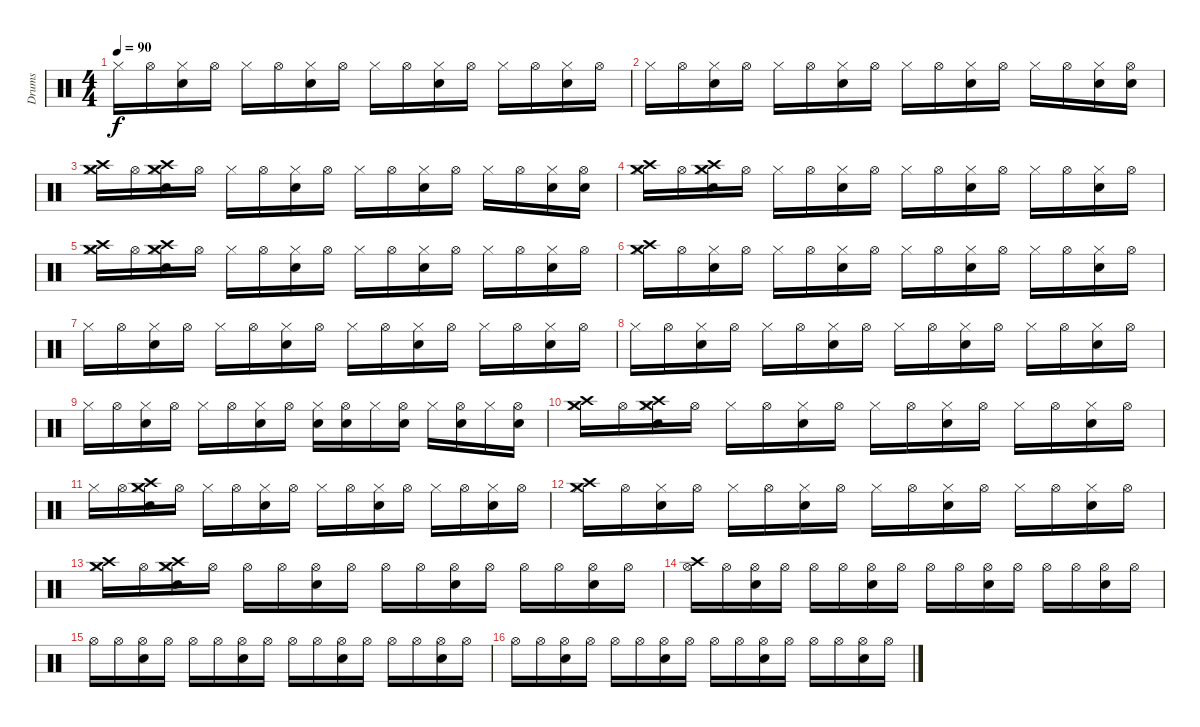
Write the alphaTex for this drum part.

\track ("Drums" "Drums") {instrument percussion}
\staff {score}
\articulation defaults
\ts (4 4)
\tempo 90
\clef neutral
\ks c "Hi-Hat (closed)".16{dy f} "Hi-Hat (open)".16
("Snare (hit) 2" "Hi-Hat (closed)").16 "Hi-Hat (open)".16 "Hi-Hat (closed)".16 "Hi-Hat (open)".16 ("Snare (hit) 2" "Hi-Hat (closed)").16 "Hi-Hat (open)".16 "Hi-Hat (closed)".16 "Hi-Hat (open)".16 ("Snare (hit) 2" "Hi-Hat (closed)").16 "Hi-Hat (open)".16 "Hi-Hat (closed)".16 "Hi-Hat (open)".16 ("Snare (hit) 2" "Hi-Hat (closed)").16 "Hi-Hat (open)".16 |
"Hi-Hat (closed)".16 "Hi-Hat (open)".16 ("Snare (hit) 2" "Hi-Hat (closed)").16 "Hi-Hat (open)".16 "Hi-Hat (closed)".16 "Hi-Hat (open)".16 ("Snare (hit) 2" "Hi-Hat (closed)").16 "Hi-Hat (open)".16 "Hi-Hat (closed)".16 "Hi-Hat (open)".16 ("Snare (hit) 2" "Hi-Hat (closed)").16 "Hi-Hat (open)".16 "Hi-Hat (closed)".16 "Hi-Hat (open)".16 ("Snare (hit) 2" "Hi-Hat (closed)").16 ("Snare (hit) 2" "Hi-Hat (open)").16 |
("Crash high (hit)" "Hi-Hat (closed)" "Crash medium (hit)").16 "Hi-Hat (open)".16 ("Snare (hit) 2" "Hi-Hat (closed)" "Crash high (hit)" "Crash medium (hit)").16 "Hi-Hat (open)".16 "Hi-Hat (closed)".16 "Hi-Hat (open)".16 ("Snare (hit) 2" "Hi-Hat (closed)").16 "Hi-Hat (open)".16 "Hi-Hat (closed)".16 "Hi-Hat (open)".16 ("Snare (hit) 2" "Hi-Hat (closed)").16 "Hi-Hat (open)".16 "Hi-Hat (closed)".16 "Hi-Hat (open)".16 ("Snare (hit) 2" "Hi-Hat (closed)").16 ("Snare (hit) 2" "Hi-Hat (open)").16 |
("Crash high (hit)" "Hi-Hat (closed)" "Crash medium (hit)").16 "Hi-Hat (open)".16 ("Snare (hit) 2" "Hi-Hat (closed)" "Crash high (hit)" "Crash medium (hit)").16 "Hi-Hat (open)".16 "Hi-Hat (closed)".16 "Hi-Hat (open)".16 ("Snare (hit) 2" "Hi-Hat (closed)").16 "Hi-Hat (open)".16 "Hi-Hat (closed)".16 "Hi-Hat (open)".16 ("Snare (hit) 2" "Hi-Hat (closed)").16 "Hi-Hat (open)".16 "Hi-Hat (closed)".16 "Hi-Hat (open)".16 ("Snare (hit) 2" "Hi-Hat (closed)").16 "Hi-Hat (open)".16 |
("Crash high (hit)" "Hi-Hat (closed)" "Crash medium (hit)").16 "Hi-Hat (open)".16 ("Snare (hit) 2" "Hi-Hat (closed)" "Crash high (hit)" "Crash medium (hit)").16 "Hi-Hat (open)".16 "Hi-Hat (closed)".16 "Hi-Hat (open)".16 ("Snare (hit) 2" "Hi-Hat (closed)").16 "Hi-Hat (open)".16 "Hi-Hat (closed)".16 "Hi-Hat (open)".16 ("Snare (hit) 2" "Hi-Hat (closed)").16 "Hi-Hat (open)".16 "Hi-Hat (closed)".16 "Hi-Hat (open)".16 ("Snare (hit) 2" "Hi-Hat (closed)").16 "Hi-Hat (open)".16 |
("Crash high (hit)" "Hi-Hat (closed)" "Crash medium (hit)").16 "Hi-Hat (open)".16 ("Snare (hit) 2" "Hi-Hat (closed)").16 "Hi-Hat (open)".16 "Hi-Hat (closed)".16 "Hi-Hat (open)".16 ("Snare (hit) 2" "Hi-Hat (closed)").16 "Hi-Hat (open)".16 "Hi-Hat (closed)".16 "Hi-Hat (open)".16 ("Snare (hit) 2" "Hi-Hat (closed)").16 "Hi-Hat (open)".16 "Hi-Hat (closed)".16 "Hi-Hat (open)".16 ("Snare (hit) 2" "Hi-Hat (closed)").16 "Hi-Hat (open)".16 |
"Hi-Hat (closed)".16 "Hi-Hat (open)".16 ("Snare (hit) 2" "Hi-Hat (closed)").16 "Hi-Hat (open)".16 "Hi-Hat (closed)".16 "Hi-Hat (open)".16 ("Snare (hit) 2" "Hi-Hat (closed)").16 "Hi-Hat (open)".16 "Hi-Hat (closed)".16 "Hi-Hat (open)".16 ("Snare (hit) 2" "Hi-Hat (closed)").16 "Hi-Hat (open)".16 "Hi-Hat (closed)".16 "Hi-Hat (open)".16 ("Snare (hit) 2" "Hi-Hat (closed)").16 "Hi-Hat (open)".16 |
"Hi-Hat (closed)".16 "Hi-Hat (open)".16 ("Snare (hit) 2" "Hi-Hat (closed)").16 "Hi-Hat (open)".16 "Hi-Hat (closed)".16 "Hi-Hat (open)".16 ("Snare (hit) 2" "Hi-Hat (closed)").16 "Hi-Hat (open)".16 "Hi-Hat (closed)".16 "Hi-Hat (open)".16 ("Snare (hit) 2" "Hi-Hat (closed)").16 "Hi-Hat (open)".16 "Hi-Hat (closed)".16 "Hi-Hat (open)".16 ("Snare (hit) 2" "Hi-Hat (closed)").16 "Hi-Hat (open)".16 |
"Hi-Hat (closed)".16 "Hi-Hat (open)".16 ("Snare (hit) 2" "Hi-Hat (closed)").16 "Hi-Hat (open)".16 "Hi-Hat (closed)".16 "Hi-Hat (open)".16 ("Snare (hit) 2" "Hi-Hat (closed)").16 "Hi-Hat (open)".16 ("Snare (hit) 2" "Hi-Hat (closed)").16 ("Snare (hit) 2" "Hi-Hat (open)").16 "Hi-Hat (closed)".16 ("Snare (hit) 2" "Hi-Hat (open)").16 "Hi-Hat (closed)".16 ("Snare (hit) 2" "Hi-Hat (open)").16 "Hi-Hat (closed)".16 ("Snare (hit) 2" "Hi-Hat (open)").16 |
("Crash high (hit)" "Hi-Hat (closed)" "Crash medium (hit)").16 "Hi-Hat (open)".16 ("Snare (hit) 2" "Hi-Hat (closed)" "Crash high (hit)" "Crash medium (hit)").16 "Hi-Hat (open)".16 "Hi-Hat (closed)".16 "Hi-Hat (open)".16 ("Snare (hit) 2" "Hi-Hat (closed)").16 "Hi-Hat (open)".16 "Hi-Hat (closed)".16 "Hi-Hat (open)".16 ("Snare (hit) 2" "Hi-Hat (closed)").16 "Hi-Hat (open)".16 "Hi-Hat (closed)".16 "Hi-Hat (open)".16 ("Snare (hit) 2" "Hi-Hat (closed)").16 "Hi-Hat (open)".16 |
"Hi-Hat (closed)".16 "Hi-Hat (open)".16 ("Snare (hit) 2" "Hi-Hat (closed)" "Crash high (hit)" "Crash medium (hit)").16 "Hi-Hat (open)".16 "Hi-Hat (closed)".16 "Hi-Hat (open)".16 ("Snare (hit) 2" "Hi-Hat (closed)").16 "Hi-Hat (open)".16 "Hi-Hat (closed)".16 "Hi-Hat (open)".16 ("Snare (hit) 2" "Hi-Hat (closed)").16 "Hi-Hat (open)".16 "Hi-Hat (closed)".16 "Hi-Hat (open)".16 ("Snare (hit) 2" "Hi-Hat (closed)").16 "Hi-Hat (open)".16 |
("Crash high (hit)" "Hi-Hat (closed)" "Crash medium (hit)").16 "Hi-Hat (open)".16 ("Snare (hit) 2" "Hi-Hat (closed)").16 "Hi-Hat (open)".16 "Hi-Hat (closed)".16 "Hi-Hat (open)".16 ("Snare (hit) 2" "Hi-Hat (closed)").16 "Hi-Hat (open)".16 "Hi-Hat (closed)".16 "Hi-Hat (open)".16 ("Snare (hit) 2" "Hi-Hat (closed)").16 "Hi-Hat (open)".16 "Hi-Hat (closed)".16 "Hi-Hat (open)".16 ("Snare (hit) 2" "Hi-Hat (closed)").16 "Hi-Hat (open)".16 |
("Crash high (hit)" "Hi-Hat (closed)" "Crash medium (hit)").16 "Hi-Hat (open)".16 ("Snare (hit) 2" "Hi-Hat (closed)" "Crash high (hit)" "Crash medium (hit)").16 "Hi-Hat (open)".16 "Hi-Hat (open)".16 "Hi-Hat (open)".16 ("Snare (hit) 2" "Hi-Hat (open)").16 "Hi-Hat (open)".16 "Hi-Hat (open)".16 "Hi-Hat (open)".16 ("Snare (hit) 2" "Hi-Hat (open)").16 "Hi-Hat (open)".16 "Hi-Hat (open)".16 "Hi-Hat (open)".16 ("Snare (hit) 2" "Hi-Hat (open)").16 "Hi-Hat (open)".16 |
("Crash high (hit)" "Hi-Hat (open)").16 "Hi-Hat (open)".16 ("Snare (hit) 2" "Hi-Hat (open)").16 "Hi-Hat (open)".16 "Hi-Hat (open)".16 "Hi-Hat (open)".16 ("Snare (hit) 2" "Hi-Hat (open)").16 "Hi-Hat (open)".16 "Hi-Hat (open)".16 "Hi-Hat (open)".16 ("Snare (hit) 2" "Hi-Hat (open)").16 "Hi-Hat (open)".16 "Hi-Hat (open)".16 "Hi-Hat (open)".16 ("Snare (hit) 2" "Hi-Hat (open)").16 "Hi-Hat (open)".16 |
"Hi-Hat (open)".16 "Hi-Hat (open)".16 ("Snare (hit) 2" "Hi-Hat (open)").16 "Hi-Hat (open)".16 "Hi-Hat (open)".16 "Hi-Hat (open)".16 ("Snare (hit) 2" "Hi-Hat (open)").16 "Hi-Hat (open)".16 "Hi-Hat (open)".16 "Hi-Hat (open)".16 ("Snare (hit) 2" "Hi-Hat (open)").16 "Hi-Hat (open)".16 "Hi-Hat (open)".16 "Hi-Hat (open)".16 ("Snare (hit) 2" "Hi-Hat (open)").16 "Hi-Hat (open)".16 |
"Hi-Hat (open)".16 "Hi-Hat (open)".16 ("Snare (hit) 2" "Hi-Hat (open)").16 "Hi-Hat (open)".16 "Hi-Hat (open)".16 "Hi-Hat (open)".16 ("Snare (hit) 2" "Hi-Hat (open)").16 "Hi-Hat (open)".16 "Hi-Hat (open)".16 "Hi-Hat (open)".16 ("Snare (hit) 2" "Hi-Hat (open)").16 "Hi-Hat (open)".16 "Hi-Hat (open)".16 "Hi-Hat (open)".16 ("Snare (hit) 2" "Hi-Hat (open)").16 "Hi-Hat (open)".16
